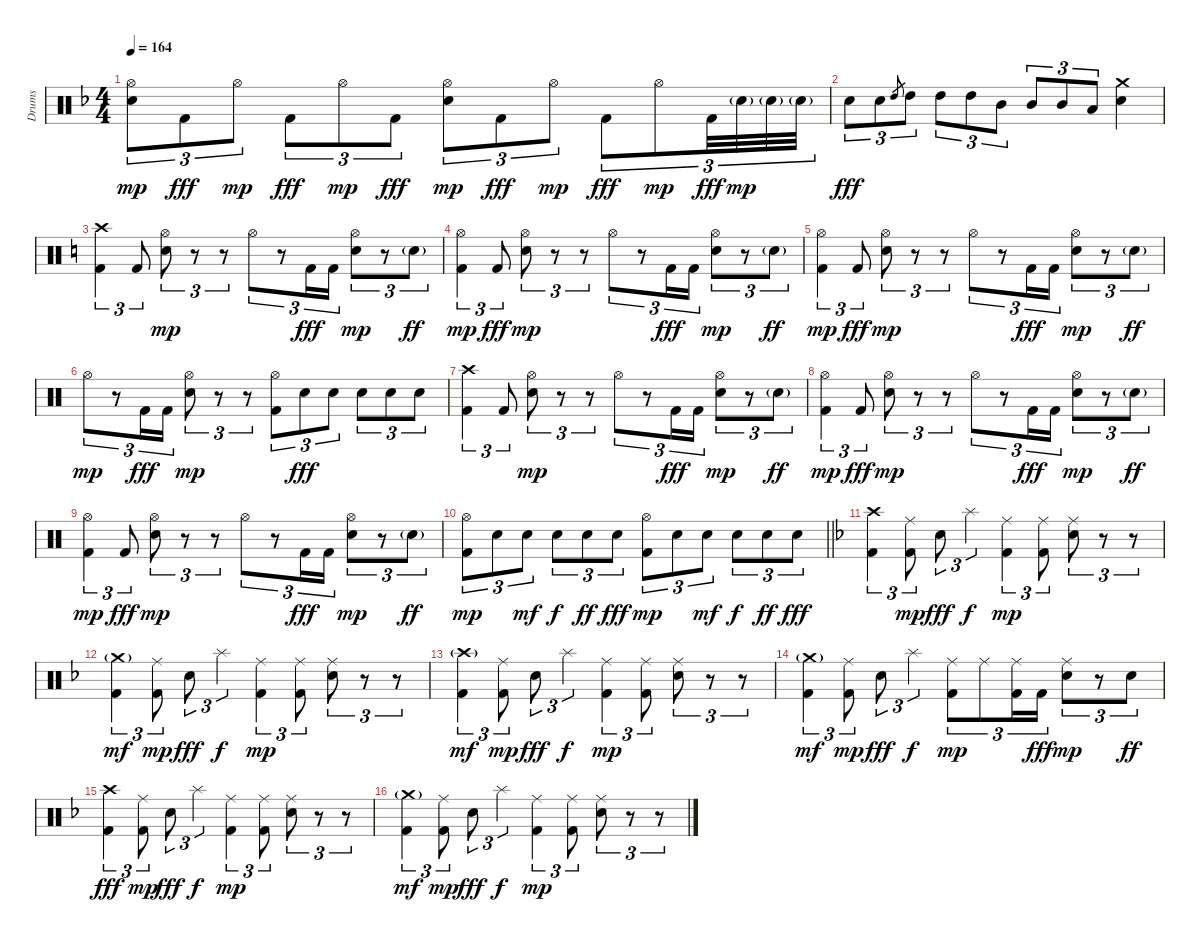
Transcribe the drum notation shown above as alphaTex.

\track ("Drums" "Drums") {instrument percussion}
\staff {score}
\articulation defaults
\ts (4 4)
\tempo 164
\clef neutral
\ks f
("Electric Snare (hit)" "Hi-Hat (open)").8{tu (3 2) dy mp} "Kick (hit) 2".8{tu (3 2) dy fff} "Hi-Hat (open)".8{tu (3 2) dy mp} "Kick (hit) 2".8{tu (3 2) dy fff} "Hi-Hat (open)".8{tu (3 2) dy mp} "Kick (hit) 2".8{tu (3 2) dy fff} ("Electric Snare (hit)" "Hi-Hat (open)").8{tu (3 2) dy mp} "Kick (hit) 2".8{tu (3 2) dy fff} "Hi-Hat (open)".8{tu (3 2) dy mp} "Kick (hit) 2".8{tu (3 2) dy fff} "Hi-Hat (open)".8{tu (3 2) dy mp} "Kick (hit) 2".32{tu (3 2) dy fff} "Electric Snare (hit)"{g}.32{tu (3 2) dy mp} "Electric Snare (hit)"{g}.32{tu (3 2)} "Electric Snare (hit)"{g}.32{tu (3 2)} |
"Electric Snare (hit)".8{tu (3 2) dy fff} "Electric Snare (hit)".8{tu (3 2)} "High Tom (hit)".8{gr} "High Tom (hit)".8{tu (3 2)} "High Tom (hit)".8{tu (3 2)} "High Tom (hit)".8{tu (3 2)} "Mid Tom (hit)".8{tu (3 2)} "Mid Tom (hit)".8{tu (3 2)} "Mid Tom (hit)".8{tu (3 2)} "Low Tom (hit)".8{tu (3 2)} ("Electric Snare (hit)" "Crash medium (hit)").4 |
\ks c
("Kick (hit) 2" "Crash high (hit)").4{tu (3 2)} "Kick (hit) 2".8{tu (3 2)} ("Electric Snare (hit)" "Hi-Hat (open)").8{tu (3 2) dy mp} r.8{tu (3 2)} r.8{tu (3 2)} "Hi-Hat (open)".8{tu (3 2)} r.8{tu (3 2)} "Kick (hit) 2".16{tu (3 2) dy fff} "Kick (hit) 2".16{tu (3 2)} ("Electric Snare (hit)" "Hi-Hat (open)").8{tu (3 2) dy mp} r.8{tu (3 2)} "Electric Snare (hit)"{g}.8{tu (3 2) dy ff} |
("Kick (hit) 2" "Hi-Hat (open)").4{tu (3 2) dy mp} "Kick (hit) 2".8{tu (3 2) dy fff} ("Electric Snare (hit)" "Hi-Hat (open)").8{tu (3 2) dy mp} r.8{tu (3 2)} r.8{tu (3 2)} "Hi-Hat (open)".8{tu (3 2)} r.8{tu (3 2)} "Kick (hit) 2".16{tu (3 2) dy fff} "Kick (hit) 2".16{tu (3 2)} ("Electric Snare (hit)" "Hi-Hat (open)").8{tu (3 2) dy mp} r.8{tu (3 2)} "Electric Snare (hit)"{g}.8{tu (3 2) dy ff} |
("Kick (hit) 2" "Hi-Hat (open)").4{tu (3 2) dy mp} "Kick (hit) 2".8{tu (3 2) dy fff} ("Electric Snare (hit)" "Hi-Hat (open)").8{tu (3 2) dy mp} r.8{tu (3 2)} r.8{tu (3 2)} "Hi-Hat (open)".8{tu (3 2)} r.8{tu (3 2)} "Kick (hit) 2".16{tu (3 2) dy fff} "Kick (hit) 2".16{tu (3 2)} ("Electric Snare (hit)" "Hi-Hat (open)").8{tu (3 2) dy mp} r.8{tu (3 2)} "Electric Snare (hit)"{g}.8{tu (3 2) dy ff} |
"Hi-Hat (open)".8{tu (3 2) dy mp} r.8{tu (3 2)} "Kick (hit) 2".16{tu (3 2) dy fff} "Kick (hit) 2".16{tu (3 2)} ("Electric Snare (hit)" "Hi-Hat (open)").8{tu (3 2) dy mp} r.8{tu (3 2)} r.8{tu (3 2)} ("Kick (hit) 2" "Hi-Hat (open)").8{tu (3 2)} "Electric Snare (hit)".8{tu (3 2) dy fff} "Electric Snare (hit)".8{tu (3 2)} "Electric Snare (hit)".8{tu (3 2)} "Electric Snare (hit)".8{tu (3 2)} "Electric Snare (hit)".8{tu (3 2)} |
("Kick (hit) 2" "Crash high (hit)").4{tu (3 2)} "Kick (hit) 2".8{tu (3 2)} ("Electric Snare (hit)" "Hi-Hat (open)").8{tu (3 2) dy mp} r.8{tu (3 2)} r.8{tu (3 2)} "Hi-Hat (open)".8{tu (3 2)} r.8{tu (3 2)} "Kick (hit) 2".16{tu (3 2) dy fff} "Kick (hit) 2".16{tu (3 2)} ("Electric Snare (hit)" "Hi-Hat (open)").8{tu (3 2) dy mp} r.8{tu (3 2)} "Electric Snare (hit)"{g}.8{tu (3 2) dy ff} |
("Kick (hit) 2" "Hi-Hat (open)").4{tu (3 2) dy mp} "Kick (hit) 2".8{tu (3 2) dy fff} ("Electric Snare (hit)" "Hi-Hat (open)").8{tu (3 2) dy mp} r.8{tu (3 2)} r.8{tu (3 2)} "Hi-Hat (open)".8{tu (3 2)} r.8{tu (3 2)} "Kick (hit) 2".16{tu (3 2) dy fff} "Kick (hit) 2".16{tu (3 2)} ("Electric Snare (hit)" "Hi-Hat (open)").8{tu (3 2) dy mp} r.8{tu (3 2)} "Electric Snare (hit)"{g}.8{tu (3 2) dy ff} |
("Kick (hit) 2" "Hi-Hat (open)").4{tu (3 2) dy mp} "Kick (hit) 2".8{tu (3 2) dy fff} ("Electric Snare (hit)" "Hi-Hat (open)").8{tu (3 2) dy mp} r.8{tu (3 2)} r.8{tu (3 2)} "Hi-Hat (open)".8{tu (3 2)} r.8{tu (3 2)} "Kick (hit) 2".16{tu (3 2) dy fff} "Kick (hit) 2".16{tu (3 2)} ("Electric Snare (hit)" "Hi-Hat (open)").8{tu (3 2) dy mp} r.8{tu (3 2)} "Electric Snare (hit)"{g}.8{tu (3 2) dy ff} |
\barLineRight lightlight
("Kick (hit) 2" "Hi-Hat (open)").8{tu (3 2) dy mp} "Electric Snare (hit)".8{tu (3 2)} "Electric Snare (hit)".8{tu (3 2) dy mf} "Electric Snare (hit)".8{tu (3 2) dy f} "Electric Snare (hit)".8{tu (3 2) dy ff} "Electric Snare (hit)".8{tu (3 2) dy fff} ("Kick (hit) 2" "Hi-Hat (open)").8{tu (3 2) dy mp} "Electric Snare (hit)".8{tu (3 2)} "Electric Snare (hit)".8{tu (3 2) dy mf} "Electric Snare (hit)".8{tu (3 2) dy f} "Electric Snare (hit)".8{tu (3 2) dy ff} "Electric Snare (hit)".8{tu (3 2) dy fff} |
\ks f
("Kick (hit) 2" "Crash high (hit)").4{tu (3 2)} ("Kick (hit) 2" "Ride (middle)").8{tu (3 2) dy mp} "Electric Snare (hit)".8{tu (3 2) dy fff} "Splash (hit)".4{tu (3 2) dy f} ("Kick (hit) 2" "Ride (middle)").4{tu (3 2) dy mp} ("Kick (hit) 2" "Ride (middle)").8{tu (3 2)} ("Electric Snare (hit)" "Ride (middle)").8{tu (3 2)} r.8{tu (3 2)} r.8{tu (3 2)} |
("Kick (hit) 2" "Crash medium (hit)"{g}).4{tu (3 2) dy mf} ("Kick (hit) 2" "Ride (middle)").8{tu (3 2) dy mp} "Electric Snare (hit)".8{tu (3 2) dy fff} "Splash (hit)".4{tu (3 2) dy f} ("Kick (hit) 2" "Ride (middle)").4{tu (3 2) dy mp} ("Kick (hit) 2" "Ride (middle)").8{tu (3 2)} ("Electric Snare (hit)" "Ride (middle)").8{tu (3 2)} r.8{tu (3 2)} r.8{tu (3 2)} |
("Kick (hit) 2" "Crash high (hit)"{g}).4{tu (3 2) dy mf} ("Kick (hit) 2" "Ride (middle)").8{tu (3 2) dy mp} "Electric Snare (hit)".8{tu (3 2) dy fff} "Splash (hit)".4{tu (3 2) dy f} ("Kick (hit) 2" "Ride (middle)").4{tu (3 2) dy mp} ("Kick (hit) 2" "Ride (middle)").8{tu (3 2)} ("Electric Snare (hit)" "Ride (middle)").8{tu (3 2)} r.8{tu (3 2)} r.8{tu (3 2)} |
("Kick (hit) 2" "Crash medium (hit)"{g}).4{tu (3 2) dy mf} ("Kick (hit) 2" "Ride (middle)").8{tu (3 2) dy mp} "Electric Snare (hit)".8{tu (3 2) dy fff} "Splash (hit)".4{tu (3 2) dy f} ("Kick (hit) 2" "Ride (middle)").8{tu (3 2) dy mp} "Ride (middle)".8{tu (3 2)} ("Kick (hit) 2" "Ride (middle)").16{tu (3 2)} "Kick (hit) 2".16{tu (3 2) dy fff} ("Electric Snare (hit)" "Ride (middle)").8{tu (3 2) dy mp} r.8{tu (3 2)} "Electric Snare (hit)".8{tu (3 2) dy ff} |
("Kick (hit) 2" "Crash high (hit)").4{tu (3 2) dy fff} ("Kick (hit) 2" "Ride (middle)").8{tu (3 2) dy mp} "Electric Snare (hit)".8{tu (3 2) dy fff} "Splash (hit)".4{tu (3 2) dy f} ("Kick (hit) 2" "Ride (middle)").4{tu (3 2) dy mp} ("Kick (hit) 2" "Ride (middle)").8{tu (3 2)} ("Electric Snare (hit)" "Ride (middle)").8{tu (3 2)} r.8{tu (3 2)} r.8{tu (3 2)} |
("Kick (hit) 2" "Crash medium (hit)"{g}).4{tu (3 2) dy mf} ("Kick (hit) 2" "Ride (middle)").8{tu (3 2) dy mp} "Electric Snare (hit)".8{tu (3 2) dy fff} "Splash (hit)".4{tu (3 2) dy f} ("Kick (hit) 2" "Ride (middle)").4{tu (3 2) dy mp} ("Kick (hit) 2" "Ride (middle)").8{tu (3 2)} ("Electric Snare (hit)" "Ride (middle)").8{tu (3 2)} r.8{tu (3 2)} r.8{tu (3 2)}
